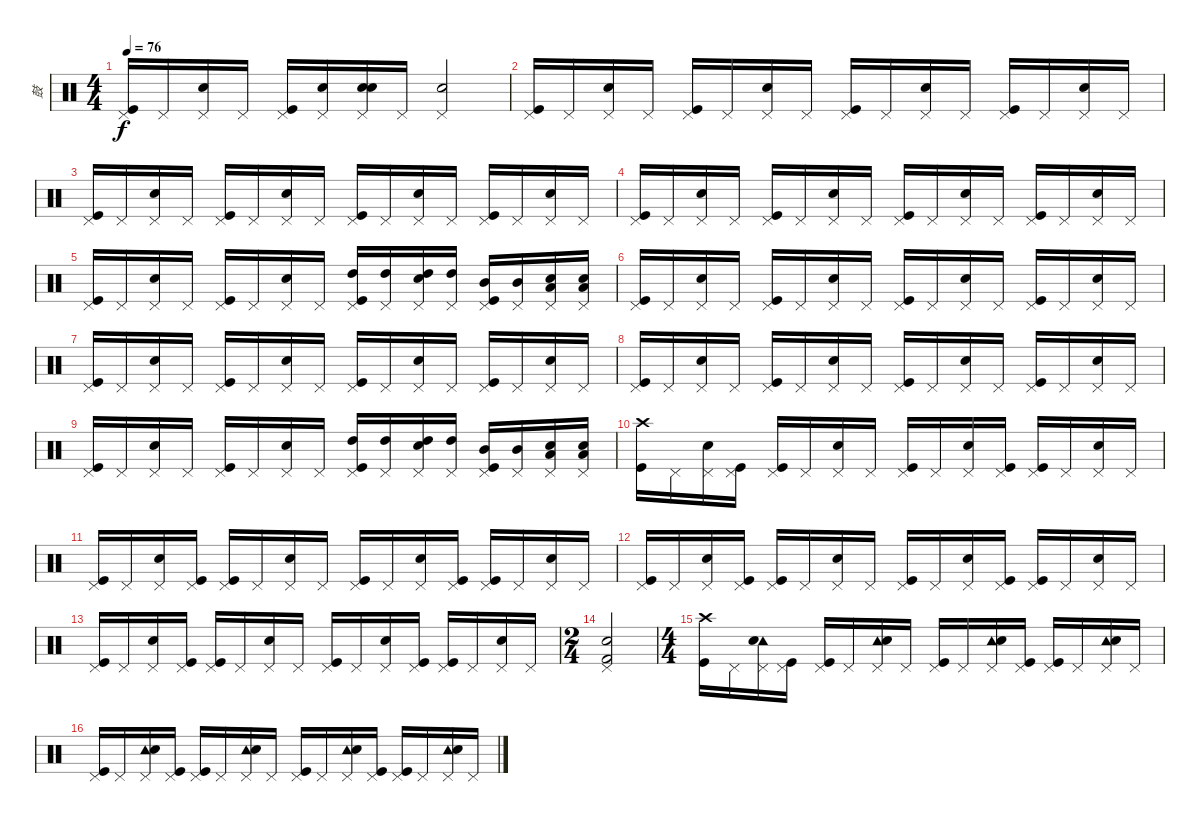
\track ("鼓" "鼓") {instrument percussion}
\staff {score}
\articulation defaults
\ts (4 4)
\tempo 76
\clef neutral
\ks c
("Pedal Hi-Hat (hit)" "Kick (hit)").16{dy f} "Pedal Hi-Hat (hit)".16 ("Pedal Hi-Hat (hit)" "Snare (hit) 2").16 "Pedal Hi-Hat (hit)".16 ("Pedal Hi-Hat (hit)" "Kick (hit)").16 ("Pedal Hi-Hat (hit)" "Hand Clap (hit)").16 ("Pedal Hi-Hat (hit)" "Hand Clap (hit)" "Snare (hit) 2").16 "Pedal Hi-Hat (hit)".16 ("Pedal Hi-Hat (hit)" "Snare (hit) 2").2 |
("Pedal Hi-Hat (hit)" "Kick (hit)").16 "Pedal Hi-Hat (hit)".16 ("Pedal Hi-Hat (hit)" "Snare (hit) 2").16 "Pedal Hi-Hat (hit)".16 ("Pedal Hi-Hat (hit)" "Kick (hit)").16 "Pedal Hi-Hat (hit)".16 ("Pedal Hi-Hat (hit)" "Snare (hit) 2").16 "Pedal Hi-Hat (hit)".16 ("Pedal Hi-Hat (hit)" "Kick (hit)").16 "Pedal Hi-Hat (hit)".16 ("Pedal Hi-Hat (hit)" "Snare (hit) 2").16 "Pedal Hi-Hat (hit)".16 ("Pedal Hi-Hat (hit)" "Kick (hit)").16 "Pedal Hi-Hat (hit)".16 ("Pedal Hi-Hat (hit)" "Snare (hit) 2").16 "Pedal Hi-Hat (hit)".16 |
("Pedal Hi-Hat (hit)" "Kick (hit)").16 "Pedal Hi-Hat (hit)".16 ("Pedal Hi-Hat (hit)" "Snare (hit) 2").16 "Pedal Hi-Hat (hit)".16 ("Pedal Hi-Hat (hit)" "Kick (hit)").16 "Pedal Hi-Hat (hit)".16 ("Pedal Hi-Hat (hit)" "Snare (hit) 2").16 "Pedal Hi-Hat (hit)".16 ("Pedal Hi-Hat (hit)" "Kick (hit)").16 "Pedal Hi-Hat (hit)".16 ("Pedal Hi-Hat (hit)" "Snare (hit) 2").16 "Pedal Hi-Hat (hit)".16 ("Pedal Hi-Hat (hit)" "Kick (hit)").16 "Pedal Hi-Hat (hit)".16 ("Pedal Hi-Hat (hit)" "Snare (hit) 2").16 "Pedal Hi-Hat (hit)".16 |
("Pedal Hi-Hat (hit)" "Kick (hit)").16 "Pedal Hi-Hat (hit)".16 ("Pedal Hi-Hat (hit)" "Snare (hit) 2").16 "Pedal Hi-Hat (hit)".16 ("Pedal Hi-Hat (hit)" "Kick (hit)").16 "Pedal Hi-Hat (hit)".16 ("Pedal Hi-Hat (hit)" "Snare (hit) 2").16 "Pedal Hi-Hat (hit)".16 ("Pedal Hi-Hat (hit)" "Kick (hit)").16 "Pedal Hi-Hat (hit)".16 ("Pedal Hi-Hat (hit)" "Snare (hit) 2").16 "Pedal Hi-Hat (hit)".16 ("Pedal Hi-Hat (hit)" "Kick (hit)").16 "Pedal Hi-Hat (hit)".16 ("Pedal Hi-Hat (hit)" "Snare (hit) 2").16 "Pedal Hi-Hat (hit)".16 |
("Pedal Hi-Hat (hit)" "Kick (hit)").16 "Pedal Hi-Hat (hit)".16 ("Pedal Hi-Hat (hit)" "Snare (hit) 2").16 "Pedal Hi-Hat (hit)".16 ("Pedal Hi-Hat (hit)" "Kick (hit)").16 "Pedal Hi-Hat (hit)".16 ("Pedal Hi-Hat (hit)" "Snare (hit) 2").16 "Pedal Hi-Hat (hit)".16 ("Pedal Hi-Hat (hit)" "High Tom (hit)" "Kick (hit)").16 ("Pedal Hi-Hat (hit)" "High Tom (hit)").16 ("Pedal Hi-Hat (hit)" "High Tom (hit)" "Snare (hit) 2").16 ("Pedal Hi-Hat (hit)" "High Tom (hit)").16 ("Pedal Hi-Hat (hit)" "Mid Tom (hit)" "Kick (hit)").16 ("Pedal Hi-Hat (hit)" "Mid Tom (hit)").16 ("Pedal Hi-Hat (hit)" "Low Tom (hit)" "Snare (hit) 2").16 ("Pedal Hi-Hat (hit)" "Low Tom (hit)" "Snare (hit) 2").16 |
("Pedal Hi-Hat (hit)" "Kick (hit)").16 "Pedal Hi-Hat (hit)".16 ("Pedal Hi-Hat (hit)" "Snare (hit) 2").16 "Pedal Hi-Hat (hit)".16 ("Pedal Hi-Hat (hit)" "Kick (hit)").16 "Pedal Hi-Hat (hit)".16 ("Pedal Hi-Hat (hit)" "Snare (hit) 2").16 "Pedal Hi-Hat (hit)".16 ("Pedal Hi-Hat (hit)" "Kick (hit)").16 "Pedal Hi-Hat (hit)".16 ("Pedal Hi-Hat (hit)" "Snare (hit) 2").16 "Pedal Hi-Hat (hit)".16 ("Pedal Hi-Hat (hit)" "Kick (hit)").16 "Pedal Hi-Hat (hit)".16 ("Pedal Hi-Hat (hit)" "Snare (hit) 2").16 "Pedal Hi-Hat (hit)".16 |
("Pedal Hi-Hat (hit)" "Kick (hit)").16 "Pedal Hi-Hat (hit)".16 ("Pedal Hi-Hat (hit)" "Snare (hit) 2").16 "Pedal Hi-Hat (hit)".16 ("Pedal Hi-Hat (hit)" "Kick (hit)").16 "Pedal Hi-Hat (hit)".16 ("Pedal Hi-Hat (hit)" "Snare (hit) 2").16 "Pedal Hi-Hat (hit)".16 ("Pedal Hi-Hat (hit)" "Kick (hit)").16 "Pedal Hi-Hat (hit)".16 ("Pedal Hi-Hat (hit)" "Snare (hit) 2").16 "Pedal Hi-Hat (hit)".16 ("Pedal Hi-Hat (hit)" "Kick (hit)").16 "Pedal Hi-Hat (hit)".16 ("Pedal Hi-Hat (hit)" "Snare (hit) 2").16 "Pedal Hi-Hat (hit)".16 |
("Pedal Hi-Hat (hit)" "Kick (hit)").16 "Pedal Hi-Hat (hit)".16 ("Pedal Hi-Hat (hit)" "Snare (hit) 2").16 "Pedal Hi-Hat (hit)".16 ("Pedal Hi-Hat (hit)" "Kick (hit)").16 "Pedal Hi-Hat (hit)".16 ("Pedal Hi-Hat (hit)" "Snare (hit) 2").16 "Pedal Hi-Hat (hit)".16 ("Pedal Hi-Hat (hit)" "Kick (hit)").16 "Pedal Hi-Hat (hit)".16 ("Pedal Hi-Hat (hit)" "Snare (hit) 2").16 "Pedal Hi-Hat (hit)".16 ("Pedal Hi-Hat (hit)" "Kick (hit)").16 "Pedal Hi-Hat (hit)".16 ("Pedal Hi-Hat (hit)" "Snare (hit) 2").16 "Pedal Hi-Hat (hit)".16 |
("Pedal Hi-Hat (hit)" "Kick (hit)").16 "Pedal Hi-Hat (hit)".16 ("Pedal Hi-Hat (hit)" "Snare (hit) 2").16 "Pedal Hi-Hat (hit)".16 ("Pedal Hi-Hat (hit)" "Kick (hit)").16 "Pedal Hi-Hat (hit)".16 ("Pedal Hi-Hat (hit)" "Snare (hit) 2").16 "Pedal Hi-Hat (hit)".16 ("Pedal Hi-Hat (hit)" "High Tom (hit)" "Kick (hit)").16 ("Pedal Hi-Hat (hit)" "High Tom (hit)").16 ("Pedal Hi-Hat (hit)" "High Tom (hit)" "Snare (hit) 2").16 ("Pedal Hi-Hat (hit)" "High Tom (hit)").16 ("Pedal Hi-Hat (hit)" "Mid Tom (hit)" "Kick (hit)").16 ("Pedal Hi-Hat (hit)" "Mid Tom (hit)").16 ("Pedal Hi-Hat (hit)" "Low Tom (hit)" "Snare (hit) 2").16 ("Pedal Hi-Hat (hit)" "Low Tom (hit)" "Snare (hit) 2").16 |
("Crash high (hit)" "Kick (hit)").16 "Pedal Hi-Hat (hit)".16 ("Pedal Hi-Hat (hit)" "Snare (hit) 2").16 ("Pedal Hi-Hat (hit)" "Kick (hit)").16 ("Pedal Hi-Hat (hit)" "Kick (hit)").16 "Pedal Hi-Hat (hit)".16 ("Pedal Hi-Hat (hit)" "Snare (hit) 2").16 "Pedal Hi-Hat (hit)".16 ("Pedal Hi-Hat (hit)" "Kick (hit)").16 "Pedal Hi-Hat (hit)".16 ("Pedal Hi-Hat (hit)" "Snare (hit) 2").16 ("Pedal Hi-Hat (hit)" "Kick (hit)").16 ("Pedal Hi-Hat (hit)" "Kick (hit)").16 "Pedal Hi-Hat (hit)".16 ("Pedal Hi-Hat (hit)" "Snare (hit) 2").16 "Pedal Hi-Hat (hit)".16 |
("Pedal Hi-Hat (hit)" "Kick (hit)").16 "Pedal Hi-Hat (hit)".16 ("Pedal Hi-Hat (hit)" "Snare (hit) 2").16 ("Pedal Hi-Hat (hit)" "Kick (hit)").16 ("Pedal Hi-Hat (hit)" "Kick (hit)").16 "Pedal Hi-Hat (hit)".16 ("Pedal Hi-Hat (hit)" "Snare (hit) 2").16 "Pedal Hi-Hat (hit)".16 ("Pedal Hi-Hat (hit)" "Kick (hit)").16 "Pedal Hi-Hat (hit)".16 ("Pedal Hi-Hat (hit)" "Snare (hit) 2").16 ("Pedal Hi-Hat (hit)" "Kick (hit)").16 ("Pedal Hi-Hat (hit)" "Kick (hit)").16 "Pedal Hi-Hat (hit)".16 ("Pedal Hi-Hat (hit)" "Snare (hit) 2").16 "Pedal Hi-Hat (hit)".16 |
("Pedal Hi-Hat (hit)" "Kick (hit)").16 "Pedal Hi-Hat (hit)".16 ("Pedal Hi-Hat (hit)" "Snare (hit) 2").16 ("Pedal Hi-Hat (hit)" "Kick (hit)").16 ("Pedal Hi-Hat (hit)" "Kick (hit)").16 "Pedal Hi-Hat (hit)".16 ("Pedal Hi-Hat (hit)" "Snare (hit) 2").16 "Pedal Hi-Hat (hit)".16 ("Pedal Hi-Hat (hit)" "Kick (hit)").16 "Pedal Hi-Hat (hit)".16 ("Pedal Hi-Hat (hit)" "Snare (hit) 2").16 ("Pedal Hi-Hat (hit)" "Kick (hit)").16 ("Pedal Hi-Hat (hit)" "Kick (hit)").16 "Pedal Hi-Hat (hit)".16 ("Pedal Hi-Hat (hit)" "Snare (hit) 2").16 "Pedal Hi-Hat (hit)".16 |
("Pedal Hi-Hat (hit)" "Kick (hit)").16 "Pedal Hi-Hat (hit)".16 ("Pedal Hi-Hat (hit)" "Snare (hit) 2").16 ("Pedal Hi-Hat (hit)" "Kick (hit)").16 ("Pedal Hi-Hat (hit)" "Kick (hit)").16 "Pedal Hi-Hat (hit)".16 ("Pedal Hi-Hat (hit)" "Snare (hit) 2").16 "Pedal Hi-Hat (hit)".16 ("Pedal Hi-Hat (hit)" "Kick (hit)").16 "Pedal Hi-Hat (hit)".16 ("Pedal Hi-Hat (hit)" "Snare (hit) 2").16 ("Pedal Hi-Hat (hit)" "Kick (hit)").16 ("Pedal Hi-Hat (hit)" "Kick (hit)").16 "Pedal Hi-Hat (hit)".16 ("Pedal Hi-Hat (hit)" "Snare (hit) 2").16 "Pedal Hi-Hat (hit)".16 |
\ts (2 4)
("Pedal Hi-Hat (hit)" "Snare (hit) 2" "Kick (hit) 2").2 |
\ts (4 4)
("Crash high (hit)" "Kick (hit)").16 "Pedal Hi-Hat (hit)".16 ("Pedal Hi-Hat (hit)" "Tambourine (hit)" "Snare (hit) 2").16 ("Pedal Hi-Hat (hit)" "Kick (hit)").16 ("Pedal Hi-Hat (hit)" "Kick (hit)").16 "Pedal Hi-Hat (hit)".16 ("Pedal Hi-Hat (hit)" "Tambourine (hit)" "Snare (hit) 2").16 "Pedal Hi-Hat (hit)".16 ("Pedal Hi-Hat (hit)" "Kick (hit)").16 "Pedal Hi-Hat (hit)".16 ("Pedal Hi-Hat (hit)" "Tambourine (hit)" "Snare (hit) 2").16 ("Pedal Hi-Hat (hit)" "Kick (hit)").16 ("Pedal Hi-Hat (hit)" "Kick (hit)").16 "Pedal Hi-Hat (hit)".16 ("Pedal Hi-Hat (hit)" "Tambourine (hit)" "Snare (hit) 2").16 "Pedal Hi-Hat (hit)".16 |
("Pedal Hi-Hat (hit)" "Kick (hit)").16 "Pedal Hi-Hat (hit)".16 ("Pedal Hi-Hat (hit)" "Tambourine (hit)" "Snare (hit) 2").16 ("Pedal Hi-Hat (hit)" "Kick (hit)").16 ("Pedal Hi-Hat (hit)" "Kick (hit)").16 "Pedal Hi-Hat (hit)".16 ("Pedal Hi-Hat (hit)" "Tambourine (hit)" "Snare (hit) 2").16 "Pedal Hi-Hat (hit)".16 ("Pedal Hi-Hat (hit)" "Kick (hit)").16 "Pedal Hi-Hat (hit)".16 ("Pedal Hi-Hat (hit)" "Tambourine (hit)" "Snare (hit) 2").16 ("Pedal Hi-Hat (hit)" "Kick (hit)").16 ("Pedal Hi-Hat (hit)" "Kick (hit)").16 "Pedal Hi-Hat (hit)".16 ("Pedal Hi-Hat (hit)" "Tambourine (hit)" "Snare (hit) 2").16 "Pedal Hi-Hat (hit)".16
